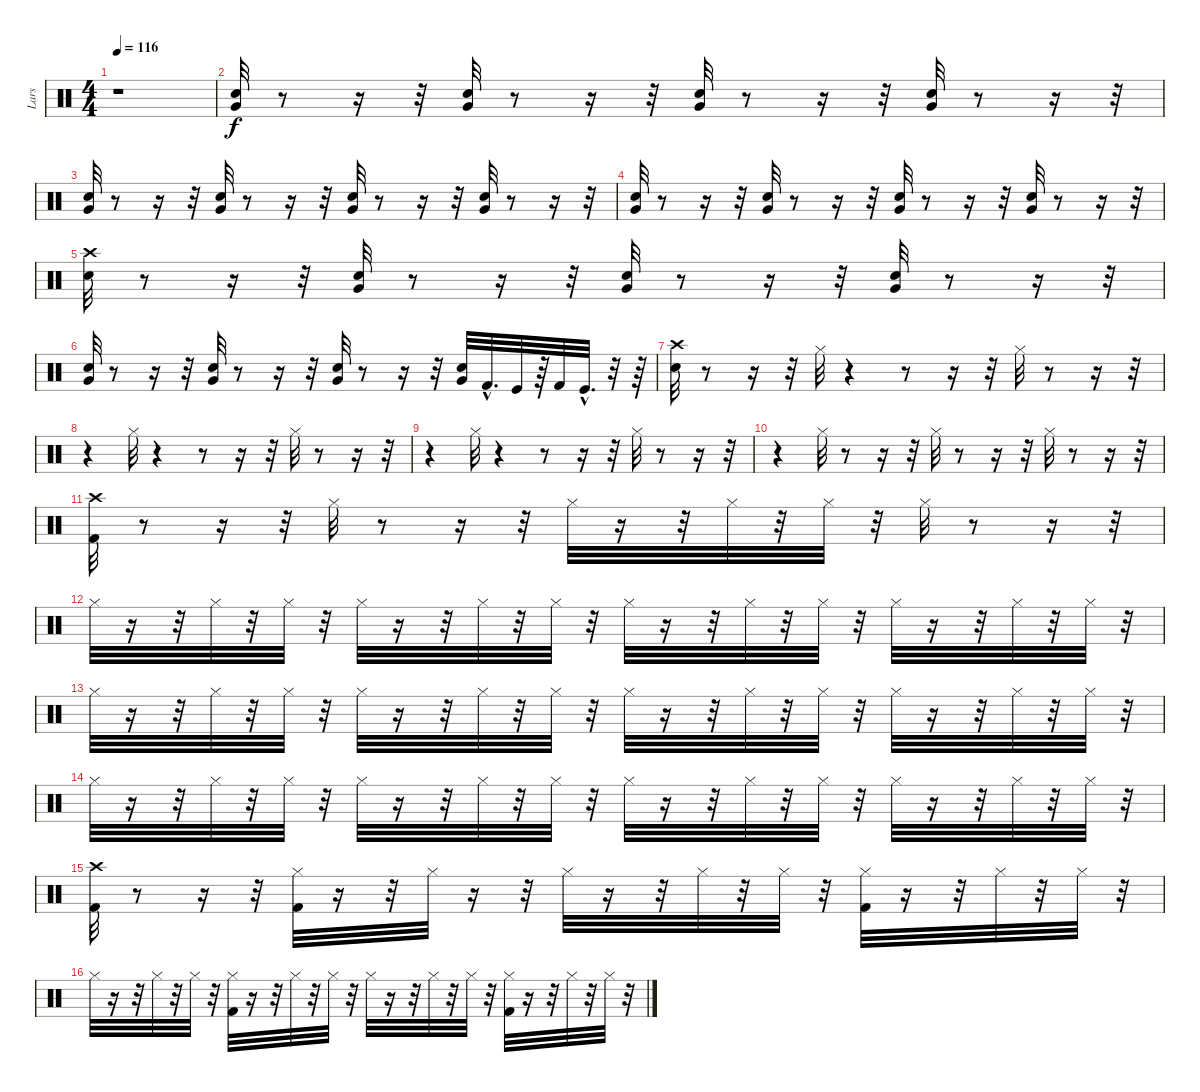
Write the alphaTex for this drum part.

\track ("Lars" "Lars") {instrument percussion}
\staff {score}
\articulation defaults
\ts (4 4)
\tempo 116
\clef neutral
\ks c
r.1{dy f} |
("Very Low Tom (hit)" "Snare (hit) 2").32 r.8 r.16 r.32 ("Very Low Tom (hit)" "Snare (hit) 2").32 r.8 r.16 r.32 ("Very Low Tom (hit)" "Snare (hit) 2").32 r.8 r.16 r.32 ("Very Low Tom (hit)" "Snare (hit) 2").32 r.8 r.16 r.32 |
("Very Low Tom (hit)" "Snare (hit) 2").32 r.8 r.16 r.32 ("Very Low Tom (hit)" "Snare (hit) 2").32 r.8 r.16 r.32 ("Very Low Tom (hit)" "Snare (hit) 2").32 r.8 r.16 r.32 ("Very Low Tom (hit)" "Snare (hit) 2").32 r.8 r.16 r.32 |
("Very Low Tom (hit)" "Snare (hit) 2").32 r.8 r.16 r.32 ("Very Low Tom (hit)" "Snare (hit) 2").32 r.8 r.16 r.32 ("Very Low Tom (hit)" "Snare (hit) 2").32 r.8 r.16 r.32 ("Very Low Tom (hit)" "Snare (hit) 2").32 r.8 r.16 r.32 |
("Crash high (hit)" "Snare (hit) 2").32 r.8 r.16 r.32 ("Very Low Tom (hit)" "Snare (hit) 2").32 r.8 r.16 r.32 ("Very Low Tom (hit)" "Snare (hit) 2").32 r.8 r.16 r.32 ("Very Low Tom (hit)" "Snare (hit) 2").32 r.8 r.16 r.32 |
("Snare (hit) 2" "Very Low Tom (hit)").32 r.8 r.16 r.32 ("Very Low Tom (hit)" "Snare (hit) 2").32 r.8 r.16 r.32 ("Snare (hit) 2" "Very Low Tom (hit)").32 r.8 r.16 r.32 ("Very Low Tom (hit)" "Snare (hit) 2").32 "Kick (hit) 2"{hac}.32{d} "Kick (hit)".32 r.64 "Kick (hit) 2".32 "Kick (hit)"{hac}.32{d} r.32 r.64 |
("Crash high (hit)" "Snare (hit) 2").32 r.8 r.16 r.32 "Hi-Hat (closed)".32 r.4 r.8 r.16 r.32 "Hi-Hat (closed)".32 r.8 r.16 r.32 |
r.4 "Hi-Hat (closed)".32 r.4 r.8 r.16 r.32 "Hi-Hat (closed)".32 r.8 r.16 r.32 |
r.4 "Hi-Hat (closed)".32 r.4 r.8 r.16 r.32 "Hi-Hat (closed)".32 r.8 r.16 r.32 |
r.4 "Hi-Hat (closed)".32 r.8 r.16 r.32 "Hi-Hat (closed)".32 r.8 r.16 r.32 "Hi-Hat (closed)".32 r.8 r.16 r.32 |
("Crash high (hit)" "Kick (hit) 2").32 r.8 r.16 r.32 "Hi-Hat (closed)".32 r.8 r.16 r.32 "Hi-Hat (closed)".32 r.16 r.32 "Hi-Hat (closed)".32 r.32 "Hi-Hat (closed)".32 r.32 "Hi-Hat (closed)".32 r.8 r.16 r.32 |
"Hi-Hat (closed)".32 r.16 r.32 "Hi-Hat (closed)".32 r.32 "Hi-Hat (closed)".32 r.32 "Hi-Hat (closed)".32 r.16 r.32 "Hi-Hat (closed)".32 r.32 "Hi-Hat (closed)".32 r.32 "Hi-Hat (closed)".32 r.16 r.32 "Hi-Hat (closed)".32 r.32 "Hi-Hat (closed)".32 r.32 "Hi-Hat (closed)".32 r.16 r.32 "Hi-Hat (closed)".32 r.32 "Hi-Hat (closed)".32 r.32 |
"Hi-Hat (closed)".32 r.16 r.32 "Hi-Hat (closed)".32 r.32 "Hi-Hat (closed)".32 r.32 "Hi-Hat (closed)".32 r.16 r.32 "Hi-Hat (closed)".32 r.32 "Hi-Hat (closed)".32 r.32 "Hi-Hat (closed)".32 r.16 r.32 "Hi-Hat (closed)".32 r.32 "Hi-Hat (closed)".32 r.32 "Hi-Hat (closed)".32 r.16 r.32 "Hi-Hat (closed)".32 r.32 "Hi-Hat (closed)".32 r.32 |
"Hi-Hat (closed)".32 r.16 r.32 "Hi-Hat (closed)".32 r.32 "Hi-Hat (closed)".32 r.32 "Hi-Hat (closed)".32 r.16 r.32 "Hi-Hat (closed)".32 r.32 "Hi-Hat (closed)".32 r.32 "Hi-Hat (closed)".32 r.16 r.32 "Hi-Hat (closed)".32 r.32 "Hi-Hat (closed)".32 r.32 "Hi-Hat (closed)".32 r.16 r.32 "Hi-Hat (closed)".32 r.32 "Hi-Hat (closed)".32 r.32 |
("Kick (hit) 2" "Crash high (hit)").32 r.8 r.16 r.32 ("Hi-Hat (closed)" "Kick (hit) 2").32 r.16 r.32 "Hi-Hat (closed)".32 r.16 r.32 "Hi-Hat (closed)".32 r.16 r.32 "Hi-Hat (closed)".32 r.32 "Hi-Hat (closed)".32 r.32 ("Hi-Hat (closed)" "Kick (hit) 2").32 r.16 r.32 "Hi-Hat (closed)".32 r.32 "Hi-Hat (closed)".32 r.32 |
"Hi-Hat (closed)".32 r.16 r.32 "Hi-Hat (closed)".32 r.32 "Hi-Hat (closed)".32 r.32 ("Kick (hit) 2" "Hi-Hat (closed)").32 r.16 r.32 "Hi-Hat (closed)".32 r.32 "Hi-Hat (closed)".32 r.32 "Hi-Hat (closed)".32 r.16 r.32 "Hi-Hat (closed)".32 r.32 "Hi-Hat (closed)".32 r.32 ("Kick (hit) 2" "Hi-Hat (closed)").32 r.16 r.32 "Hi-Hat (closed)".32 r.32 "Hi-Hat (closed)".32 r.32
